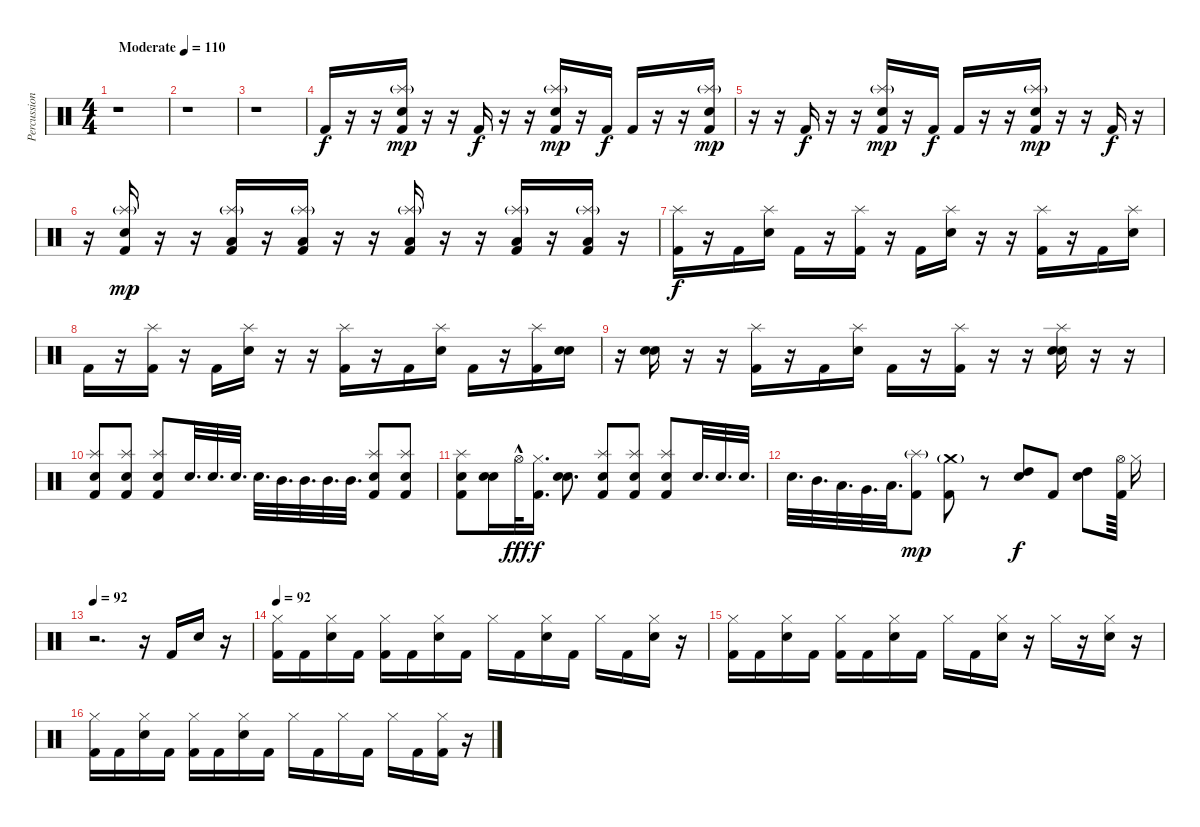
\track ("Percussion" "Percussion") {instrument percussion}
\staff {score}
\articulation defaults
\ts (4 4)
\tempo (110 "Moderate")
\clef neutral
\ks c
r.1{dy f} |
r.1 |
r.1 |
"Kick (hit) 2".16 r.16 r.16 ("Splash (hit)"{g} "Electric Snare (hit)" "Kick (hit) 2").16{dy mp} r.16 r.16 "Kick (hit) 2".16{dy f} r.16 r.16 ("Splash (hit)"{g} "Electric Snare (hit)" "Kick (hit) 2").16{dy mp} r.16 "Kick (hit) 2".16{dy f} "Kick (hit) 2".16 r.16 r.16 ("Splash (hit)"{g} "Electric Snare (hit)" "Kick (hit) 2").16{dy mp} |
r.16 r.16 "Kick (hit) 2".16{dy f} r.16 r.16 ("Splash (hit)"{g} "Electric Snare (hit)" "Kick (hit) 2").16{dy mp} r.16 "Kick (hit) 2".16{dy f} "Kick (hit) 2".16 r.16 r.16 ("Splash (hit)"{g} "Electric Snare (hit)" "Kick (hit) 2").16{dy mp} r.16 r.16 "Kick (hit) 2".16{dy f} r.16 |
r.16 ("Splash (hit)"{g} "Electric Snare (hit)" "Kick (hit) 2").16{dy mp} r.16 r.16 ("Splash (hit)"{g} "Low Floor Tom (hit)" "Kick (hit) 2").16 r.16 ("Splash (hit)"{g} "Low Floor Tom (hit)" "Kick (hit) 2").16 r.16 r.16 ("Splash (hit)"{g} "Low Floor Tom (hit)" "Kick (hit) 2").16 r.16 r.16 ("Splash (hit)"{g} "Low Floor Tom (hit)" "Kick (hit) 2").16 r.16 ("Splash (hit)"{g} "Low Floor Tom (hit)" "Kick (hit) 2").16 r.16 |
("Splash (hit)" "Kick (hit) 2").16{dy f} r.16 "Kick (hit) 2".16 ("Splash (hit)" "Electric Snare (hit)").16 "Kick (hit) 2".16 r.16 ("Splash (hit)" "Kick (hit) 2").16 r.16 "Kick (hit) 2".16 ("Splash (hit)" "Electric Snare (hit)").16 r.16 r.16 ("Splash (hit)" "Kick (hit) 2").16 r.16 "Kick (hit) 2".16 ("Splash (hit)" "Electric Snare (hit)").16 |
"Kick (hit) 2".16 r.16 ("Splash (hit)" "Kick (hit) 2").16 r.16 "Kick (hit) 2".16 ("Splash (hit)" "Electric Snare (hit)").16 r.16 r.16 ("Splash (hit)" "Kick (hit) 2").16 r.16 "Kick (hit) 2".16 ("Splash (hit)" "Electric Snare (hit)").16 "Kick (hit) 2".16 r.16 ("Splash (hit)" "Kick (hit) 2").16 ("Snare (hit) 2" "Electric Snare (hit)").16 |
r.16 ("Snare (hit) 2" "Electric Snare (hit)").16 r.16 r.16 ("Splash (hit)" "Kick (hit) 2").16 r.16 "Kick (hit) 2".16 ("Splash (hit)" "Electric Snare (hit)").16 "Kick (hit) 2".16 r.16 ("Splash (hit)" "Kick (hit) 2").16 r.16 r.16 ("Splash (hit)" "Snare (hit) 2" "Electric Snare (hit)").16 r.16 r.16 |
("Splash (hit)" "Electric Snare (hit)" "Kick (hit) 2").8 ("Splash (hit)" "Electric Snare (hit)" "Kick (hit) 2").8 ("Splash (hit)" "Electric Snare (hit)" "Kick (hit) 2").8 "Electric Snare (hit)".32{d} "Electric Snare (hit)".32{d} "Electric Snare (hit)".32{d} "Electric Snare (hit)".32{d} "Mid Tom (hit)".32{d} "Mid Tom (hit)".32{d} "Mid Tom (hit)".32{d} "Mid Tom (hit)".32{d} ("Splash (hit)" "Electric Snare (hit)" "Kick (hit) 2").8 ("Splash (hit)" "Electric Snare (hit)" "Kick (hit) 2").8 |
("Splash (hit)" "Electric Snare (hit)" "Kick (hit) 2").8 ("Snare (hit) 2" "Electric Snare (hit)").16 "Hi-Hat (open)"{hac}.32{dy fff} ("Hi-Hat (closed)" "Kick (hit) 2").16{d dy f} ("Snare (hit) 2" "Electric Snare (hit)").8{d} ("Splash (hit)" "Electric Snare (hit)" "Kick (hit) 2").8 ("Splash (hit)" "Electric Snare (hit)" "Kick (hit) 2").8 ("Splash (hit)" "Electric Snare (hit)" "Kick (hit) 2").8 "Electric Snare (hit)".32{d} "Electric Snare (hit)".32{d} "Electric Snare (hit)".32{d} |
"Electric Snare (hit)".32{d} "Mid Tom (hit)".32{d} "Low Tom (hit)".32{d} "Very Low Tom (hit)".32{d} "Low Floor Tom (hit)".32{d} ("Splash (hit)"{g} "Kick (hit) 2").8{dy mp} ("Crash medium (hit)"{g} "Kick (hit) 2").8 r.8 ("High Tom (hit)" "Electric Snare (hit)").8{dy f} "Kick (hit) 2".8 ("High Tom (hit)" "Electric Snare (hit)").8 ("Hi-Hat (open)" "Kick (hit) 2").64 "Hi-Hat (closed)".16 |
\tempo 92
r.2{d} r.16 "Kick (hit) 2".16 "Electric Snare (hit)".16 r.16 |
\tempo 92
("Hi-Hat (closed)" "Kick (hit) 2").16 "Kick (hit) 2".16 ("Hi-Hat (closed)" "Electric Snare (hit)").16 "Kick (hit) 2".16 ("Hi-Hat (closed)" "Kick (hit) 2").16 "Kick (hit) 2".16 ("Hi-Hat (closed)" "Electric Snare (hit)").16 "Kick (hit) 2".16 "Hi-Hat (closed)".16 "Kick (hit) 2".16 ("Hi-Hat (closed)" "Electric Snare (hit)").16 "Kick (hit) 2".16 "Hi-Hat (closed)".16 "Kick (hit) 2".16 ("Hi-Hat (closed)" "Electric Snare (hit)").16 r.16 |
("Hi-Hat (closed)" "Kick (hit) 2").16 "Kick (hit) 2".16 ("Hi-Hat (closed)" "Electric Snare (hit)").16 "Kick (hit) 2".16 ("Hi-Hat (closed)" "Kick (hit) 2").16 "Kick (hit) 2".16 ("Hi-Hat (closed)" "Electric Snare (hit)").16 "Kick (hit) 2".16 "Hi-Hat (closed)".16 "Kick (hit) 2".16 ("Hi-Hat (closed)" "Electric Snare (hit)").16 r.16 "Hi-Hat (closed)".16 r.16 ("Hi-Hat (closed)" "Electric Snare (hit)").16 r.16 |
("Hi-Hat (closed)" "Kick (hit) 2").16 "Kick (hit) 2".16 ("Hi-Hat (closed)" "Electric Snare (hit)").16 "Kick (hit) 2".16 ("Hi-Hat (closed)" "Kick (hit) 2").16 "Kick (hit) 2".16 ("Hi-Hat (closed)" "Electric Snare (hit)").16 "Kick (hit) 2".16 "Hi-Hat (closed)".16 "Kick (hit) 2".16 "Hi-Hat (closed)".16 "Kick (hit) 2".16 "Hi-Hat (closed)".16 "Kick (hit) 2".16 ("Hi-Hat (closed)" "Kick (hit) 2").16 r.16
